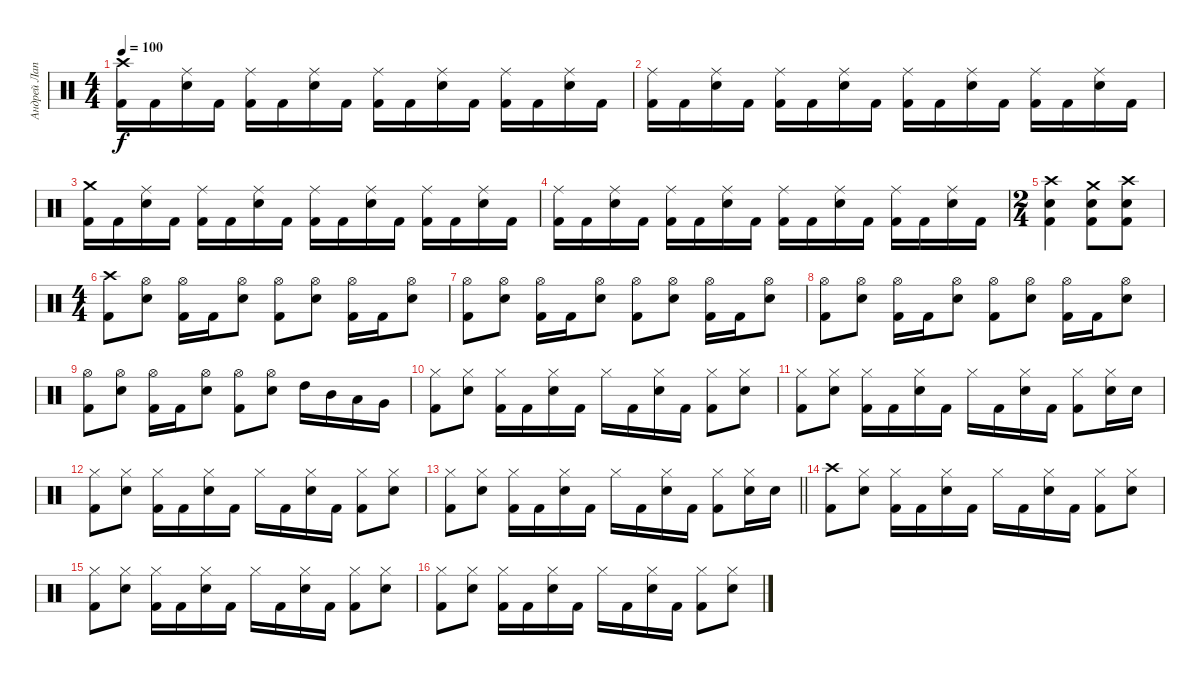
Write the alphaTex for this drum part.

\track ("Андрей Лаптев" "Андрей Лап") {instrument percussion}
\staff {score}
\articulation defaults
\ts (4 4)
\tempo 100
\clef neutral
\ks c
("Crash high (hit)" "Kick (hit) 2").16{dy f} "Kick (hit) 2".16 ("Ride (middle)" "Snare (hit) 2").16 "Kick (hit) 2".16 ("Ride (middle)" "Kick (hit) 2").16 "Kick (hit) 2".16 ("Ride (middle)" "Snare (hit) 2").16 "Kick (hit) 2".16 ("Ride (middle)" "Kick (hit) 2").16 "Kick (hit) 2".16 ("Ride (middle)" "Snare (hit) 2").16 "Kick (hit) 2".16 ("Ride (middle)" "Kick (hit) 2").16 "Kick (hit) 2".16 ("Ride (middle)" "Snare (hit) 2").16 "Kick (hit) 2".16 |
("Ride (middle)" "Kick (hit) 2").16 "Kick (hit) 2".16 ("Ride (middle)" "Snare (hit) 2").16 "Kick (hit) 2".16 ("Ride (middle)" "Kick (hit) 2").16 "Kick (hit) 2".16 ("Ride (middle)" "Snare (hit) 2").16 "Kick (hit) 2".16 ("Ride (middle)" "Kick (hit) 2").16 "Kick (hit) 2".16 ("Ride (middle)" "Snare (hit) 2").16 "Kick (hit) 2".16 ("Ride (middle)" "Kick (hit) 2").16 "Kick (hit) 2".16 ("Ride (middle)" "Snare (hit) 2").16 "Kick (hit) 2".16 |
("Crash medium (hit)" "Kick (hit) 2").16 "Kick (hit) 2".16 ("Ride (middle)" "Snare (hit) 2").16 "Kick (hit) 2".16 ("Ride (middle)" "Kick (hit) 2").16 "Kick (hit) 2".16 ("Ride (middle)" "Snare (hit) 2").16 "Kick (hit) 2".16 ("Ride (middle)" "Kick (hit) 2").16 "Kick (hit) 2".16 ("Ride (middle)" "Snare (hit) 2").16 "Kick (hit) 2".16 ("Ride (middle)" "Kick (hit) 2").16 "Kick (hit) 2".16 ("Ride (middle)" "Snare (hit) 2").16 "Kick (hit) 2".16 |
("Ride (middle)" "Kick (hit) 2").16 "Kick (hit) 2".16 ("Ride (middle)" "Snare (hit) 2").16 "Kick (hit) 2".16 ("Ride (middle)" "Kick (hit) 2").16 "Kick (hit) 2".16 ("Ride (middle)" "Snare (hit) 2").16 "Kick (hit) 2".16 ("Ride (middle)" "Kick (hit) 2").16 "Kick (hit) 2".16 ("Ride (middle)" "Snare (hit) 2").16 "Kick (hit) 2".16 ("Ride (middle)" "Kick (hit) 2").16 "Kick (hit) 2".16 ("Ride (middle)" "Snare (hit) 2").16 "Kick (hit) 2".16 |
\ts (2 4)
("Crash high (hit)" "Snare (hit) 2" "Kick (hit) 2").4 ("Crash medium (hit)" "Snare (hit) 2" "Kick (hit) 2").8 ("Crash high (hit)" "Snare (hit) 2" "Kick (hit) 2").8 |
\ts (4 4)
("Crash high (hit)" "Kick (hit) 2").8 ("Hi-Hat (open)" "Snare (hit) 2").8 ("Hi-Hat (open)" "Kick (hit) 2").16 "Kick (hit) 2".16 ("Hi-Hat (open)" "Snare (hit) 2").8 ("Hi-Hat (open)" "Kick (hit) 2").8 ("Hi-Hat (open)" "Snare (hit) 2").8 ("Hi-Hat (open)" "Kick (hit) 2").16 "Kick (hit) 2".16 ("Hi-Hat (open)" "Snare (hit) 2").8 |
("Hi-Hat (open)" "Kick (hit) 2").8 ("Hi-Hat (open)" "Snare (hit) 2").8 ("Hi-Hat (open)" "Kick (hit) 2").16 "Kick (hit) 2".16 ("Hi-Hat (open)" "Snare (hit) 2").8 ("Hi-Hat (open)" "Kick (hit) 2").8 ("Hi-Hat (open)" "Snare (hit) 2").8 ("Hi-Hat (open)" "Kick (hit) 2").16 "Kick (hit) 2".16 ("Hi-Hat (open)" "Snare (hit) 2").8 |
("Hi-Hat (open)" "Kick (hit) 2").8 ("Hi-Hat (open)" "Snare (hit) 2").8 ("Hi-Hat (open)" "Kick (hit) 2").16 "Kick (hit) 2".16 ("Hi-Hat (open)" "Snare (hit) 2").8 ("Hi-Hat (open)" "Kick (hit) 2").8 ("Hi-Hat (open)" "Snare (hit) 2").8 ("Hi-Hat (open)" "Kick (hit) 2").16 "Kick (hit) 2".16 ("Hi-Hat (open)" "Snare (hit) 2").8 |
("Hi-Hat (open)" "Kick (hit) 2").8 ("Hi-Hat (open)" "Snare (hit) 2").8 ("Hi-Hat (open)" "Kick (hit) 2").16 "Kick (hit) 2".16 ("Hi-Hat (open)" "Snare (hit) 2").8 ("Hi-Hat (open)" "Kick (hit) 2").8 ("Hi-Hat (open)" "Snare (hit) 2").8 "High Tom (hit)".16 "Mid Tom (hit)".16 "Low Tom (hit)".16 "Very Low Tom (hit)".16 |
("Hi-Hat (closed)" "Kick (hit) 2").8 ("Hi-Hat (closed)" "Snare (hit) 2").8 ("Hi-Hat (closed)" "Kick (hit) 2").16 "Kick (hit) 2".16 ("Hi-Hat (closed)" "Snare (hit) 2").16 "Kick (hit) 2".16 "Hi-Hat (closed)".16 "Kick (hit) 2".16 ("Hi-Hat (closed)" "Snare (hit) 2").16 "Kick (hit) 2".16 ("Hi-Hat (closed)" "Kick (hit) 2").8 ("Hi-Hat (closed)" "Snare (hit) 2").8 |
("Hi-Hat (closed)" "Kick (hit) 2").8 ("Hi-Hat (closed)" "Snare (hit) 2").8 ("Hi-Hat (closed)" "Kick (hit) 2").16 "Kick (hit) 2".16 ("Hi-Hat (closed)" "Snare (hit) 2").16 "Kick (hit) 2".16 "Hi-Hat (closed)".16 "Kick (hit) 2".16 ("Hi-Hat (closed)" "Snare (hit) 2").16 "Kick (hit) 2".16 ("Hi-Hat (closed)" "Kick (hit) 2").8 ("Hi-Hat (closed)" "Snare (hit) 2").16 "Snare (hit) 2".16 |
("Hi-Hat (closed)" "Kick (hit) 2").8 ("Hi-Hat (closed)" "Snare (hit) 2").8 ("Hi-Hat (closed)" "Kick (hit) 2").16 "Kick (hit) 2".16 ("Hi-Hat (closed)" "Snare (hit) 2").16 "Kick (hit) 2".16 "Hi-Hat (closed)".16 "Kick (hit) 2".16 ("Hi-Hat (closed)" "Snare (hit) 2").16 "Kick (hit) 2".16 ("Hi-Hat (closed)" "Kick (hit) 2").8 ("Hi-Hat (closed)" "Snare (hit) 2").8 |
\barLineRight lightlight
("Hi-Hat (closed)" "Kick (hit) 2").8 ("Hi-Hat (closed)" "Snare (hit) 2").8 ("Hi-Hat (closed)" "Kick (hit) 2").16 "Kick (hit) 2".16 ("Hi-Hat (closed)" "Snare (hit) 2").16 "Kick (hit) 2".16 "Hi-Hat (closed)".16 "Kick (hit) 2".16 ("Hi-Hat (closed)" "Snare (hit) 2").16 "Kick (hit) 2".16 ("Hi-Hat (closed)" "Kick (hit) 2").8 ("Hi-Hat (closed)" "Snare (hit) 2").16 "Snare (hit) 2".16 |
("Crash high (hit)" "Kick (hit) 2").8 ("Hi-Hat (closed)" "Snare (hit) 2").8 ("Hi-Hat (closed)" "Kick (hit) 2").16 "Kick (hit) 2".16 ("Hi-Hat (closed)" "Snare (hit) 2").16 "Kick (hit) 2".16 "Hi-Hat (closed)".16 "Kick (hit) 2".16 ("Hi-Hat (closed)" "Snare (hit) 2").16 "Kick (hit) 2".16 ("Hi-Hat (closed)" "Kick (hit) 2").8 ("Hi-Hat (closed)" "Snare (hit) 2").8 |
("Hi-Hat (closed)" "Kick (hit) 2").8 ("Hi-Hat (closed)" "Snare (hit) 2").8 ("Hi-Hat (closed)" "Kick (hit) 2").16 "Kick (hit) 2".16 ("Hi-Hat (closed)" "Snare (hit) 2").16 "Kick (hit) 2".16 "Hi-Hat (closed)".16 "Kick (hit) 2".16 ("Hi-Hat (closed)" "Snare (hit) 2").16 "Kick (hit) 2".16 ("Hi-Hat (closed)" "Kick (hit) 2").8 ("Hi-Hat (closed)" "Snare (hit) 2").8 |
("Hi-Hat (closed)" "Kick (hit) 2").8 ("Hi-Hat (closed)" "Snare (hit) 2").8 ("Hi-Hat (closed)" "Kick (hit) 2").16 "Kick (hit) 2".16 ("Hi-Hat (closed)" "Snare (hit) 2").16 "Kick (hit) 2".16 "Hi-Hat (closed)".16 "Kick (hit) 2".16 ("Hi-Hat (closed)" "Snare (hit) 2").16 "Kick (hit) 2".16 ("Hi-Hat (closed)" "Kick (hit) 2").8 ("Hi-Hat (closed)" "Snare (hit) 2").8
